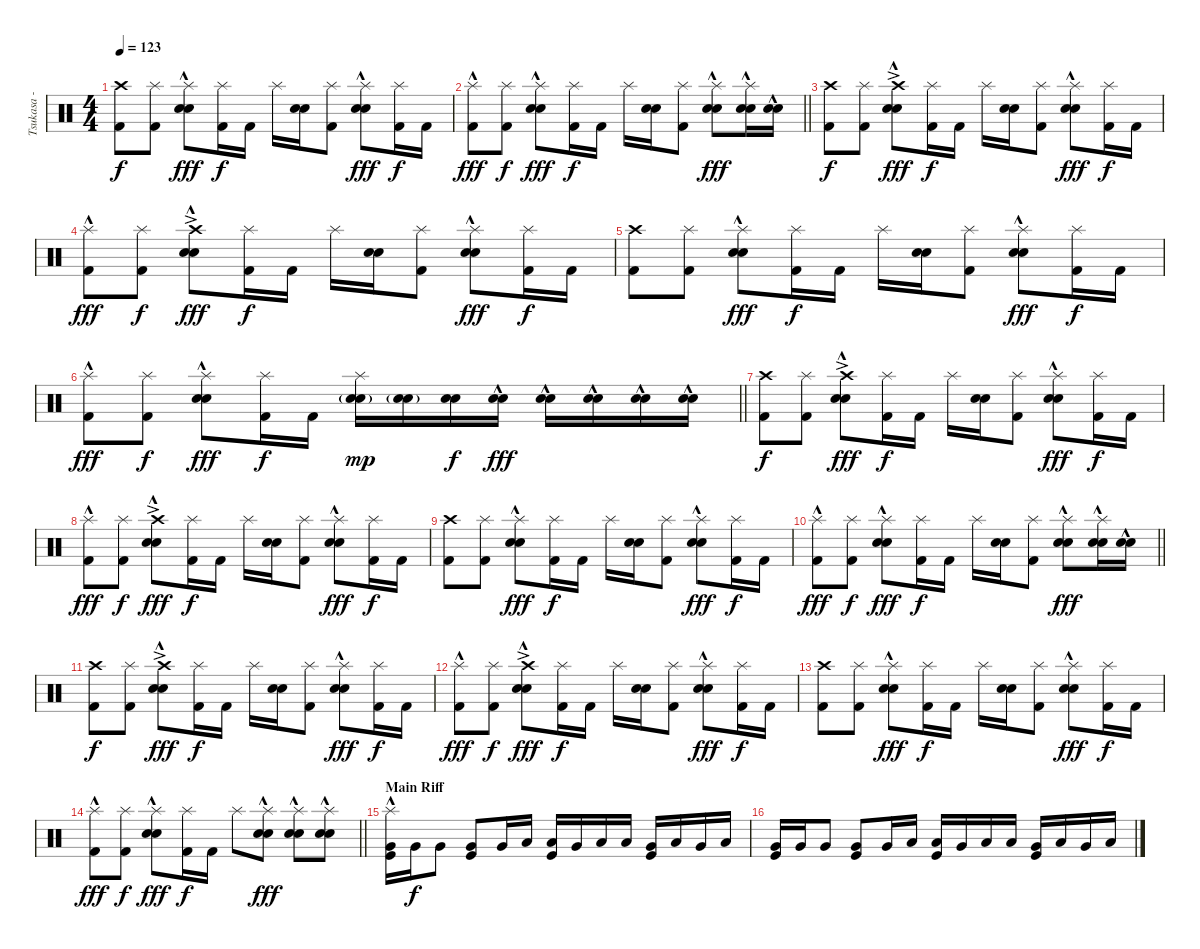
\track ("Tsukasa - Drums" "Tsukasa - ") {instrument percussion}
\staff {score}
\articulation defaults
\ts (4 4)
\tempo 123
\clef neutral
\ks c
("Crash high (hit)" "Kick (hit) 2").8{dy f} ("Splash (hit)" "Kick (hit) 2").8 ("Splash (hit)" "Electric Snare (hit)"{hac} "Snare (hit) 2").8{dy fff} ("Splash (hit)" "Kick (hit) 2").16{dy f} "Kick (hit) 2".16 "Splash (hit)".16 ("Electric Snare (hit)" "Snare (hit) 2").16 ("Splash (hit)" "Kick (hit) 2").8 ("Splash (hit)" "Electric Snare (hit)"{hac} "Snare (hit) 2").8{dy fff} ("Splash (hit)" "Kick (hit) 2").16{dy f} "Kick (hit) 2".16 |
\barLineRight lightlight
("Splash (hit)"{hac} "Kick (hit) 2").8{dy fff} ("Splash (hit)" "Kick (hit) 2").8{dy f} ("Splash (hit)" "Electric Snare (hit)"{hac} "Snare (hit) 2").8{dy fff} ("Splash (hit)" "Kick (hit) 2").16{dy f} "Kick (hit) 2".16 "Splash (hit)".16 ("Electric Snare (hit)" "Snare (hit) 2").16 ("Splash (hit)" "Kick (hit) 2").8 ("Splash (hit)" "Electric Snare (hit)"{hac} "Snare (hit) 2").8{dy fff} ("Splash (hit)" "Electric Snare (hit)"{hac} "Snare (hit) 2").16 ("Electric Snare (hit)"{hac} "Snare (hit) 2").16 |
\section ("" "")
("Crash high (hit)" "Kick (hit) 2").8{dy f} ("Splash (hit)" "Kick (hit) 2").8 ("Crash high (hit)"{ac} "Electric Snare (hit)"{hac} "Snare (hit) 2").8{dy fff} ("Splash (hit)" "Kick (hit) 2").16{dy f} "Kick (hit) 2".16 "Splash (hit)".16 ("Electric Snare (hit)" "Snare (hit) 2").16 ("Splash (hit)" "Kick (hit) 2").8 ("Splash (hit)" "Electric Snare (hit)"{hac} "Snare (hit) 2").8{dy fff} ("Splash (hit)" "Kick (hit) 2").16{dy f} "Kick (hit) 2".16 |
("Splash (hit)"{hac} "Kick (hit) 2").8{dy fff} ("Splash (hit)" "Kick (hit) 2").8{dy f} ("Crash high (hit)"{ac} "Electric Snare (hit)"{hac} "Snare (hit) 2").8{dy fff} ("Splash (hit)" "Kick (hit) 2").16{dy f} "Kick (hit) 2".16 "Splash (hit)".16 ("Electric Snare (hit)" "Snare (hit) 2").16 ("Splash (hit)" "Kick (hit) 2").8 ("Splash (hit)" "Electric Snare (hit)"{hac} "Snare (hit) 2").8{dy fff} ("Splash (hit)" "Kick (hit) 2").16{dy f} "Kick (hit) 2".16 |
("Crash high (hit)" "Kick (hit) 2").8 ("Splash (hit)" "Kick (hit) 2").8 ("Splash (hit)" "Electric Snare (hit)"{hac} "Snare (hit) 2").8{dy fff} ("Splash (hit)" "Kick (hit) 2").16{dy f} "Kick (hit) 2".16 "Splash (hit)".16 ("Electric Snare (hit)" "Snare (hit) 2").16 ("Splash (hit)" "Kick (hit) 2").8 ("Splash (hit)" "Electric Snare (hit)"{hac} "Snare (hit) 2").8{dy fff} ("Splash (hit)" "Kick (hit) 2").16{dy f} "Kick (hit) 2".16 |
\barLineRight lightlight
("Splash (hit)"{hac} "Kick (hit) 2").8{dy fff} ("Splash (hit)" "Kick (hit) 2").8{dy f} ("Splash (hit)" "Electric Snare (hit)"{hac} "Snare (hit) 2").8{dy fff} ("Splash (hit)" "Kick (hit) 2").16{dy f} "Kick (hit) 2".16 ("Splash (hit)" "Electric Snare (hit)"{g} "Snare (hit) 2"{g}).16{dy mp} ("Electric Snare (hit)" "Snare (hit) 2"{g}).16 ("Electric Snare (hit)" "Snare (hit) 2").16{dy f} ("Electric Snare (hit)"{hac} "Snare (hit) 2").16{dy fff} ("Electric Snare (hit)"{hac} "Snare (hit) 2").16 ("Electric Snare (hit)"{hac} "Snare (hit) 2").16 ("Electric Snare (hit)"{hac} "Snare (hit) 2").16 ("Electric Snare (hit)"{hac} "Snare (hit) 2").16 |
\section ("" "")
("Crash high (hit)" "Kick (hit) 2").8{dy f} ("Splash (hit)" "Kick (hit) 2").8 ("Crash high (hit)"{ac} "Electric Snare (hit)"{hac} "Snare (hit) 2").8{dy fff} ("Splash (hit)" "Kick (hit) 2").16{dy f} "Kick (hit) 2".16 "Splash (hit)".16 ("Electric Snare (hit)" "Snare (hit) 2").16 ("Splash (hit)" "Kick (hit) 2").8 ("Splash (hit)" "Electric Snare (hit)"{hac} "Snare (hit) 2").8{dy fff} ("Splash (hit)" "Kick (hit) 2").16{dy f} "Kick (hit) 2".16 |
("Splash (hit)"{hac} "Kick (hit) 2").8{dy fff} ("Splash (hit)" "Kick (hit) 2").8{dy f} ("Crash high (hit)"{ac} "Electric Snare (hit)"{hac} "Snare (hit) 2").8{dy fff} ("Splash (hit)" "Kick (hit) 2").16{dy f} "Kick (hit) 2".16 "Splash (hit)".16 ("Electric Snare (hit)" "Snare (hit) 2").16 ("Splash (hit)" "Kick (hit) 2").8 ("Splash (hit)" "Electric Snare (hit)"{hac} "Snare (hit) 2").8{dy fff} ("Splash (hit)" "Kick (hit) 2").16{dy f} "Kick (hit) 2".16 |
("Crash high (hit)" "Kick (hit) 2").8 ("Splash (hit)" "Kick (hit) 2").8 ("Splash (hit)" "Electric Snare (hit)"{hac} "Snare (hit) 2").8{dy fff} ("Splash (hit)" "Kick (hit) 2").16{dy f} "Kick (hit) 2".16 "Splash (hit)".16 ("Electric Snare (hit)" "Snare (hit) 2").16 ("Splash (hit)" "Kick (hit) 2").8 ("Splash (hit)" "Electric Snare (hit)"{hac} "Snare (hit) 2").8{dy fff} ("Splash (hit)" "Kick (hit) 2").16{dy f} "Kick (hit) 2".16 |
\barLineRight lightlight
("Splash (hit)"{hac} "Kick (hit) 2").8{dy fff} ("Splash (hit)" "Kick (hit) 2").8{dy f} ("Splash (hit)" "Electric Snare (hit)"{hac} "Snare (hit) 2").8{dy fff} ("Splash (hit)" "Kick (hit) 2").16{dy f} "Kick (hit) 2".16 "Splash (hit)".16 ("Electric Snare (hit)" "Snare (hit) 2").16 ("Splash (hit)" "Kick (hit) 2").8 ("Splash (hit)" "Electric Snare (hit)"{hac} "Snare (hit) 2").8{dy fff} ("Splash (hit)" "Electric Snare (hit)"{hac} "Snare (hit) 2").16 ("Electric Snare (hit)"{hac} "Snare (hit) 2").16 |
\section ("" "")
("Crash high (hit)" "Kick (hit) 2").8{dy f} ("Splash (hit)" "Kick (hit) 2").8 ("Crash high (hit)"{ac} "Electric Snare (hit)"{hac} "Snare (hit) 2").8{dy fff} ("Splash (hit)" "Kick (hit) 2").16{dy f} "Kick (hit) 2".16 "Splash (hit)".16 ("Electric Snare (hit)" "Snare (hit) 2").16 ("Splash (hit)" "Kick (hit) 2").8 ("Splash (hit)" "Electric Snare (hit)"{hac} "Snare (hit) 2").8{dy fff} ("Splash (hit)" "Kick (hit) 2").16{dy f} "Kick (hit) 2".16 |
("Splash (hit)"{hac} "Kick (hit) 2").8{dy fff} ("Splash (hit)" "Kick (hit) 2").8{dy f} ("Crash high (hit)"{ac} "Electric Snare (hit)"{hac} "Snare (hit) 2").8{dy fff} ("Splash (hit)" "Kick (hit) 2").16{dy f} "Kick (hit) 2".16 "Splash (hit)".16 ("Electric Snare (hit)" "Snare (hit) 2").16 ("Splash (hit)" "Kick (hit) 2").8 ("Splash (hit)" "Electric Snare (hit)"{hac} "Snare (hit) 2").8{dy fff} ("Splash (hit)" "Kick (hit) 2").16{dy f} "Kick (hit) 2".16 |
("Crash high (hit)" "Kick (hit) 2").8 ("Splash (hit)" "Kick (hit) 2").8 ("Splash (hit)" "Electric Snare (hit)"{hac} "Snare (hit) 2").8{dy fff} ("Splash (hit)" "Kick (hit) 2").16{dy f} "Kick (hit) 2".16 "Splash (hit)".16 ("Electric Snare (hit)" "Snare (hit) 2").16 ("Splash (hit)" "Kick (hit) 2").8 ("Splash (hit)" "Electric Snare (hit)"{hac} "Snare (hit) 2").8{dy fff} ("Splash (hit)" "Kick (hit) 2").16{dy f} "Kick (hit) 2".16 |
\barLineRight lightlight
("Splash (hit)"{hac} "Kick (hit) 2").8{dy fff} ("Splash (hit)" "Kick (hit) 2").8{dy f} ("Splash (hit)" "Electric Snare (hit)"{hac} "Snare (hit) 2").8{dy fff} ("Splash (hit)" "Kick (hit) 2").16{dy f} "Kick (hit) 2".16 "Splash (hit)".8 ("Splash (hit)" "Electric Snare (hit)"{hac} "Snare (hit) 2").8{dy fff} ("Splash (hit)" "Electric Snare (hit)"{hac} "Snare (hit) 2").8 ("Splash (hit)" "Electric Snare (hit)"{hac} "Snare (hit) 2").8 |
\section ("" "Main Riff")
("Splash (hit)"{hac} "Very Low Tom (hit)" "Kick (hit)").16 "Very Low Tom (hit)".16{dy f} "Very Low Tom (hit)".8 ("Very Low Tom (hit)" "Kick (hit)").8 "Very Low Tom (hit)".16 "Low Tom (hit)".16 ("Low Tom (hit)" "Kick (hit)").16 "Very Low Tom (hit)".16 "Low Floor Tom (hit)".16 "Low Floor Tom (hit)".16 ("Very Low Tom (hit)" "Kick (hit)").16 "Low Floor Tom (hit)".16 "Very Low Tom (hit)".16 "Low Floor Tom (hit)".16 |
("Very Low Tom (hit)" "Kick (hit)").16 "Very Low Tom (hit)".16 "Very Low Tom (hit)".8 ("Very Low Tom (hit)" "Kick (hit)").8 "Very Low Tom (hit)".16 "Low Tom (hit)".16 ("Low Tom (hit)" "Kick (hit)").16 "Very Low Tom (hit)".16 "Low Floor Tom (hit)".16 "Low Floor Tom (hit)".16 ("Very Low Tom (hit)" "Kick (hit)").16 "Low Floor Tom (hit)".16 "Very Low Tom (hit)".16 "Low Floor Tom (hit)".16
